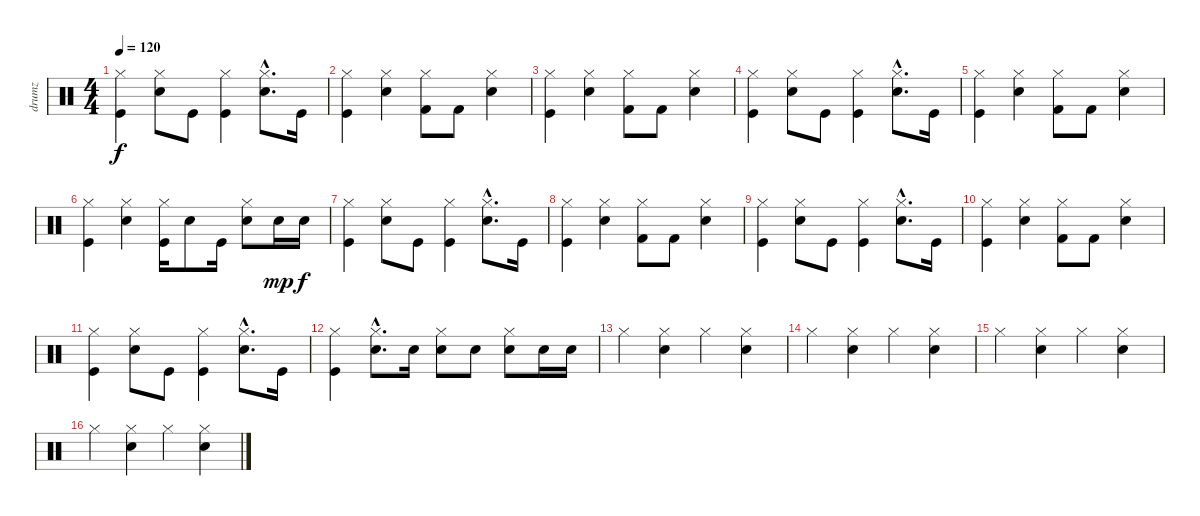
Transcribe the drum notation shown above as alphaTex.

\track ("drumz" "drumz") {instrument percussion}
\staff {score}
\articulation defaults
\ts (4 4)
\tempo 120
\clef neutral
\ks c
("Kick (hit)" "Hi-Hat (closed)").4{dy f} ("Snare (hit) 2" "Hi-Hat (closed)").8 "Kick (hit)".8 ("Kick (hit)" "Hi-Hat (closed)").4 ("Snare (hit) 2"{hac} "Hi-Hat (closed)"{hac}).8{d} "Kick (hit)".16 |
("Kick (hit)" "Hi-Hat (closed)").4 ("Snare (hit) 2" "Hi-Hat (closed)").4 ("Kick (hit) 2" "Hi-Hat (closed)").8 "Kick (hit) 2".8 ("Snare (hit) 2" "Hi-Hat (closed)").4 |
("Kick (hit)" "Hi-Hat (closed)").4 ("Snare (hit) 2" "Hi-Hat (closed)").4 ("Kick (hit) 2" "Hi-Hat (closed)").8 "Kick (hit) 2".8 ("Snare (hit) 2" "Hi-Hat (closed)").4 |
("Kick (hit)" "Hi-Hat (closed)").4 ("Snare (hit) 2" "Hi-Hat (closed)").8 "Kick (hit)".8 ("Kick (hit)" "Hi-Hat (closed)").4 ("Snare (hit) 2"{hac} "Hi-Hat (closed)"{hac}).8{d} "Kick (hit)".16 |
("Kick (hit)" "Hi-Hat (closed)").4 ("Snare (hit) 2" "Hi-Hat (closed)").4 ("Kick (hit) 2" "Hi-Hat (closed)").8 "Kick (hit) 2".8 ("Snare (hit) 2" "Hi-Hat (closed)").4 |
("Kick (hit)" "Hi-Hat (closed)").4 ("Snare (hit) 2" "Hi-Hat (closed)").4 ("Kick (hit)" "Hi-Hat (closed)").16 "Snare (hit) 2".8 "Kick (hit)".16 ("Snare (hit) 2" "Hi-Hat (closed)").8 "Snare (hit) 2".16{dy mp} "Snare (hit) 2".16{dy f} |
("Kick (hit)" "Hi-Hat (closed)").4 ("Snare (hit) 2" "Hi-Hat (closed)").8 "Kick (hit)".8 ("Kick (hit)" "Hi-Hat (closed)").4 ("Snare (hit) 2"{hac} "Hi-Hat (closed)"{hac}).8{d} "Kick (hit)".16 |
("Kick (hit)" "Hi-Hat (closed)").4 ("Snare (hit) 2" "Hi-Hat (closed)").4 ("Kick (hit) 2" "Hi-Hat (closed)").8 "Kick (hit) 2".8 ("Snare (hit) 2" "Hi-Hat (closed)").4 |
("Kick (hit)" "Hi-Hat (closed)").4 ("Snare (hit) 2" "Hi-Hat (closed)").8 "Kick (hit)".8 ("Kick (hit)" "Hi-Hat (closed)").4 ("Snare (hit) 2"{hac} "Hi-Hat (closed)"{hac}).8{d} "Kick (hit)".16 |
("Kick (hit)" "Hi-Hat (closed)").4 ("Snare (hit) 2" "Hi-Hat (closed)").4 ("Kick (hit) 2" "Hi-Hat (closed)").8 "Kick (hit) 2".8 ("Snare (hit) 2" "Hi-Hat (closed)").4 |
("Kick (hit)" "Hi-Hat (closed)").4 ("Snare (hit) 2" "Hi-Hat (closed)").8 "Kick (hit)".8 ("Kick (hit)" "Hi-Hat (closed)").4 ("Snare (hit) 2"{hac} "Hi-Hat (closed)"{hac}).8{d} "Kick (hit)".16 |
("Kick (hit)" "Hi-Hat (closed)").4 ("Snare (hit) 2"{hac} "Hi-Hat (closed)"{hac}).8{d} "Snare (hit) 2".16 ("Snare (hit) 2" "Hi-Hat (closed)").8 "Snare (hit) 2".8 ("Snare (hit) 2" "Hi-Hat (closed)").8 "Snare (hit) 2".16 "Snare (hit) 2".16 |
"Hi-Hat (closed)".4 ("Snare (hit) 2" "Hi-Hat (closed)").4 "Hi-Hat (closed)".4 ("Snare (hit) 2" "Hi-Hat (closed)").4 |
"Hi-Hat (closed)".4 ("Snare (hit) 2" "Hi-Hat (closed)").4 "Hi-Hat (closed)".4 ("Snare (hit) 2" "Hi-Hat (closed)").4 |
"Hi-Hat (closed)".4 ("Snare (hit) 2" "Hi-Hat (closed)").4 "Hi-Hat (closed)".4 ("Snare (hit) 2" "Hi-Hat (closed)").4 |
"Hi-Hat (closed)".4 ("Snare (hit) 2" "Hi-Hat (closed)").4 "Hi-Hat (closed)".4 ("Snare (hit) 2" "Hi-Hat (closed)").4
